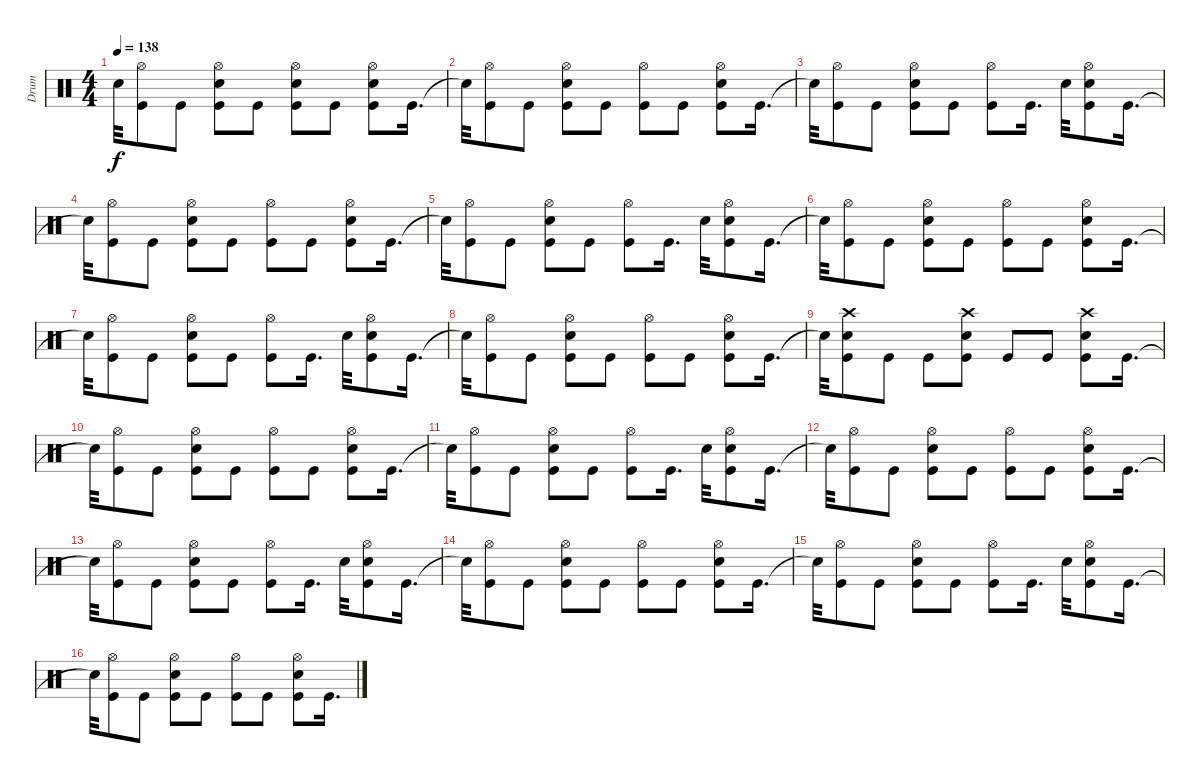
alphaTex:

\track ("Drum" "Drum") {instrument percussion}
\staff {score}
\articulation defaults
\ts (4 4)
\tempo 138
\clef neutral
\ks c "Snare (hit)"{t}.32{dy f}
("Hi-Hat (open)" "Kick (hit)").8 "Kick (hit)".8 ("Hi-Hat (open)" "Electric Snare (hit)" "Kick (hit)").8 "Kick (hit)".8 ("Hi-Hat (open)" "Electric Snare (hit)" "Kick (hit)").8 "Kick (hit)".8 ("Electric Snare (hit)" "Hi-Hat (open)" "Kick (hit)").8 "Kick (hit)".16{d} |
"Snare (hit)"{t}.32 ("Hi-Hat (open)" "Kick (hit)").8 "Kick (hit)".8 ("Hi-Hat (open)" "Electric Snare (hit)" "Kick (hit)").8 "Kick (hit)".8 ("Hi-Hat (open)" "Kick (hit)").8 "Kick (hit)".8 ("Electric Snare (hit)" "Hi-Hat (open)" "Kick (hit)").8 "Kick (hit)".16{d} |
"Snare (hit)"{t}.32 ("Hi-Hat (open)" "Kick (hit)").8 "Kick (hit)".8 ("Hi-Hat (open)" "Electric Snare (hit)" "Kick (hit)").8 "Kick (hit)".8 ("Hi-Hat (open)" "Kick (hit)").8 "Kick (hit)".16{d} "Electric Snare (hit)".32 ("Electric Snare (hit)" "Hi-Hat (open)" "Kick (hit)").8 "Kick (hit)".16{d} |
"Snare (hit)"{t}.32 ("Hi-Hat (open)" "Kick (hit)").8 "Kick (hit)".8 ("Hi-Hat (open)" "Electric Snare (hit)" "Kick (hit)").8 "Kick (hit)".8 ("Hi-Hat (open)" "Kick (hit)").8 "Kick (hit)".8 ("Electric Snare (hit)" "Hi-Hat (open)" "Kick (hit)").8 "Kick (hit)".16{d} |
"Snare (hit)"{t}.32 ("Hi-Hat (open)" "Kick (hit)").8 "Kick (hit)".8 ("Hi-Hat (open)" "Electric Snare (hit)" "Kick (hit)").8 "Kick (hit)".8 ("Hi-Hat (open)" "Kick (hit)").8 "Kick (hit)".16{d} "Electric Snare (hit)".32 ("Electric Snare (hit)" "Hi-Hat (open)" "Kick (hit)").8 "Kick (hit)".16{d} |
"Snare (hit)"{t}.32 ("Hi-Hat (open)" "Kick (hit)").8 "Kick (hit)".8 ("Hi-Hat (open)" "Electric Snare (hit)" "Kick (hit)").8 "Kick (hit)".8 ("Hi-Hat (open)" "Kick (hit)").8 "Kick (hit)".8 ("Electric Snare (hit)" "Hi-Hat (open)" "Kick (hit)").8 "Kick (hit)".16{d} |
"Snare (hit)"{t}.32 ("Hi-Hat (open)" "Kick (hit)").8 "Kick (hit)".8 ("Hi-Hat (open)" "Electric Snare (hit)" "Kick (hit)").8 "Kick (hit)".8 ("Hi-Hat (open)" "Kick (hit)").8 "Kick (hit)".16{d} "Electric Snare (hit)".32 ("Electric Snare (hit)" "Hi-Hat (open)" "Kick (hit)").8 "Kick (hit)".16{d} |
"Snare (hit)"{t}.32 ("Hi-Hat (open)" "Kick (hit)").8 "Kick (hit)".8 ("Hi-Hat (open)" "Electric Snare (hit)" "Kick (hit)").8 "Kick (hit)".8 ("Hi-Hat (open)" "Kick (hit)").8 "Kick (hit)".8 ("Electric Snare (hit)" "Hi-Hat (open)" "Kick (hit)").8 "Kick (hit)".16{d} |
"Snare (hit)"{t}.32 ("Crash high (hit)" "Electric Snare (hit)" "Kick (hit)").8 "Kick (hit)".8 "Kick (hit)".8 ("Crash high (hit)" "Electric Snare (hit)" "Kick (hit)").8 "Kick (hit)".8 "Kick (hit)".8 ("Crash high (hit)" "Electric Snare (hit)" "Kick (hit)").8 "Kick (hit)".16{d} |
"Snare (hit)"{t}.32 ("Hi-Hat (open)" "Kick (hit)").8 "Kick (hit)".8 ("Hi-Hat (open)" "Electric Snare (hit)" "Kick (hit)").8 "Kick (hit)".8 ("Hi-Hat (open)" "Kick (hit)").8 "Kick (hit)".8 ("Electric Snare (hit)" "Hi-Hat (open)" "Kick (hit)").8 "Kick (hit)".16{d} |
"Snare (hit)"{t}.32 ("Hi-Hat (open)" "Kick (hit)").8 "Kick (hit)".8 ("Hi-Hat (open)" "Electric Snare (hit)" "Kick (hit)").8 "Kick (hit)".8 ("Hi-Hat (open)" "Kick (hit)").8 "Kick (hit)".16{d} "Electric Snare (hit)".32 ("Electric Snare (hit)" "Hi-Hat (open)" "Kick (hit)").8 "Kick (hit)".16{d} |
"Snare (hit)"{t}.32 ("Hi-Hat (open)" "Kick (hit)").8 "Kick (hit)".8 ("Hi-Hat (open)" "Electric Snare (hit)" "Kick (hit)").8 "Kick (hit)".8 ("Hi-Hat (open)" "Kick (hit)").8 "Kick (hit)".8 ("Electric Snare (hit)" "Hi-Hat (open)" "Kick (hit)").8 "Kick (hit)".16{d} |
"Snare (hit)"{t}.32 ("Hi-Hat (open)" "Kick (hit)").8 "Kick (hit)".8 ("Hi-Hat (open)" "Electric Snare (hit)" "Kick (hit)").8 "Kick (hit)".8 ("Hi-Hat (open)" "Kick (hit)").8 "Kick (hit)".16{d} "Electric Snare (hit)".32 ("Electric Snare (hit)" "Hi-Hat (open)" "Kick (hit)").8 "Kick (hit)".16{d} |
"Snare (hit)"{t}.32 ("Hi-Hat (open)" "Kick (hit)").8 "Kick (hit)".8 ("Hi-Hat (open)" "Electric Snare (hit)" "Kick (hit)").8 "Kick (hit)".8 ("Hi-Hat (open)" "Kick (hit)").8 "Kick (hit)".8 ("Electric Snare (hit)" "Hi-Hat (open)" "Kick (hit)").8 "Kick (hit)".16{d} |
"Snare (hit)"{t}.32 ("Hi-Hat (open)" "Kick (hit)").8 "Kick (hit)".8 ("Hi-Hat (open)" "Electric Snare (hit)" "Kick (hit)").8 "Kick (hit)".8 ("Hi-Hat (open)" "Kick (hit)").8 "Kick (hit)".16{d} "Electric Snare (hit)".32 ("Electric Snare (hit)" "Hi-Hat (open)" "Kick (hit)").8 "Kick (hit)".16{d} |
"Snare (hit)"{t}.32 ("Hi-Hat (open)" "Kick (hit)").8 "Kick (hit)".8 ("Hi-Hat (open)" "Electric Snare (hit)" "Kick (hit)").8 "Kick (hit)".8 ("Hi-Hat (open)" "Kick (hit)").8 "Kick (hit)".8 ("Electric Snare (hit)" "Hi-Hat (open)" "Kick (hit)").8 "Kick (hit)".16{d}
